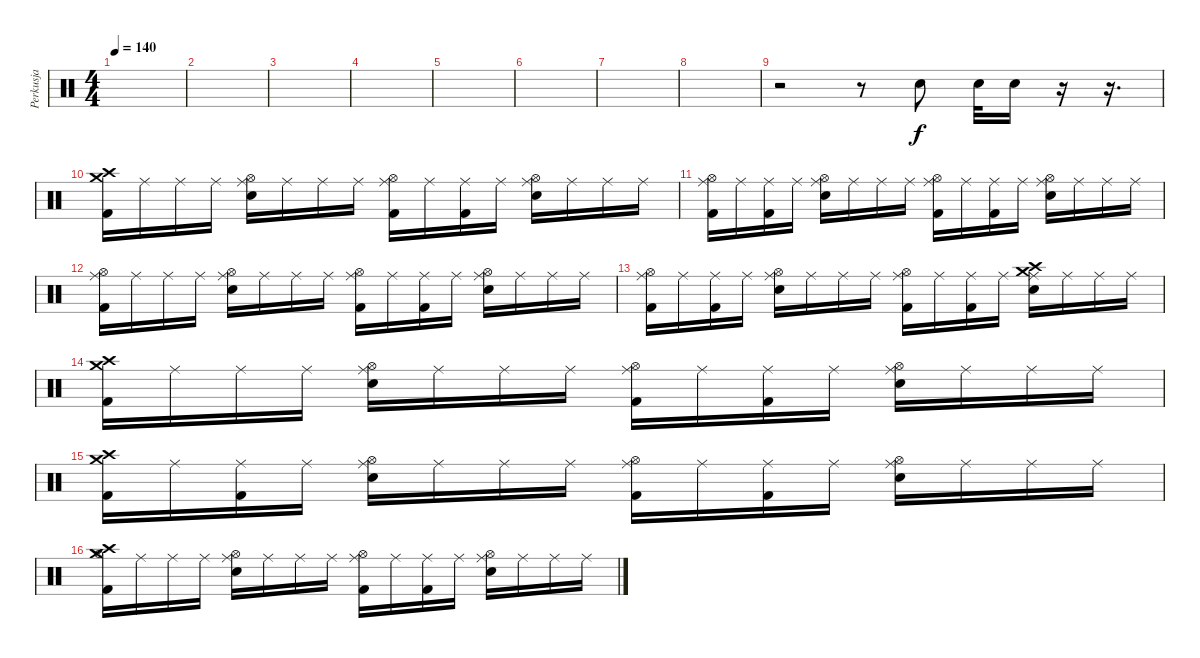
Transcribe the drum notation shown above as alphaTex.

\track ("Perkusja" "Perkusja") {instrument percussion}
\staff {score}
\articulation defaults
\ts (4 4)
\tempo 140
\clef neutral
\ks c
|
|
|
|
|
|
|
|
r.2 r.8 "Snare (hit) 2".8 "Snare (hit) 2".32 "Snare (hit) 2".16 r.16 r.16{d} |
("Crash medium (hit)" "Crash high (hit)" "Kick (hit) 2").16 "Ride (middle)".16 "Ride (middle)".16 "Ride (middle)".16 ("Ride (middle)" "Hi-Hat (open)" "Snare (hit) 2").16 "Ride (middle)".16 "Ride (middle)".16 "Ride (middle)".16 ("Ride (middle)" "Hi-Hat (open)" "Kick (hit) 2").16 "Ride (middle)".16 ("Ride (middle)" "Kick (hit) 2").16 "Ride (middle)".16 ("Ride (middle)" "Hi-Hat (open)" "Snare (hit) 2").16 "Ride (middle)".16 "Ride (middle)".16 "Ride (middle)".16 |
("Ride (middle)" "Hi-Hat (open)" "Kick (hit) 2").16 "Ride (middle)".16 ("Ride (middle)" "Kick (hit) 2").16 "Ride (middle)".16 ("Ride (middle)" "Hi-Hat (open)" "Snare (hit) 2").16 "Ride (middle)".16 "Ride (middle)".16 "Ride (middle)".16 ("Ride (middle)" "Hi-Hat (open)" "Kick (hit) 2").16 "Ride (middle)".16 ("Ride (middle)" "Kick (hit) 2").16 "Ride (middle)".16 ("Ride (middle)" "Hi-Hat (open)" "Snare (hit) 2").16 "Ride (middle)".16 "Ride (middle)".16 "Ride (middle)".16 |
("Ride (middle)" "Hi-Hat (open)" "Kick (hit) 2").16 "Ride (middle)".16 "Ride (middle)".16 "Ride (middle)".16 ("Ride (middle)" "Hi-Hat (open)" "Snare (hit) 2").16 "Ride (middle)".16 "Ride (middle)".16 "Ride (middle)".16 ("Ride (middle)" "Hi-Hat (open)" "Kick (hit) 2").16 "Ride (middle)".16 ("Ride (middle)" "Kick (hit) 2").16 "Ride (middle)".16 ("Ride (middle)" "Hi-Hat (open)" "Snare (hit) 2").16 "Ride (middle)".16 "Ride (middle)".16 "Ride (middle)".16 |
("Ride (middle)" "Hi-Hat (open)" "Kick (hit) 2").16 "Ride (middle)".16 ("Ride (middle)" "Kick (hit) 2").16 "Ride (middle)".16 ("Ride (middle)" "Hi-Hat (open)" "Snare (hit) 2").16 "Ride (middle)".16 "Ride (middle)".16 "Ride (middle)".16 ("Ride (middle)" "Hi-Hat (open)" "Kick (hit) 2").16 "Ride (middle)".16 ("Ride (middle)" "Kick (hit) 2").16 "Ride (middle)".16 ("Crash medium (hit)" "Crash high (hit)" "Ride (middle)" "Snare (hit) 2").16 "Ride (middle)".16 "Ride (middle)".16 "Ride (middle)".16 |
("Crash medium (hit)" "Crash high (hit)" "Kick (hit) 2").16 "Ride (middle)".16 "Ride (middle)".16 "Ride (middle)".16 ("Ride (middle)" "Hi-Hat (open)" "Snare (hit) 2").16 "Ride (middle)".16 "Ride (middle)".16 "Ride (middle)".16 ("Ride (middle)" "Hi-Hat (open)" "Kick (hit) 2").16 "Ride (middle)".16 ("Ride (middle)" "Kick (hit) 2").16 "Ride (middle)".16 ("Ride (middle)" "Hi-Hat (open)" "Snare (hit) 2").16 "Ride (middle)".16 "Ride (middle)".16 "Ride (middle)".16 |
("Crash medium (hit)" "Crash high (hit)" "Kick (hit) 2").16 "Ride (middle)".16 ("Ride (middle)" "Kick (hit) 2").16 "Ride (middle)".16 ("Ride (middle)" "Hi-Hat (open)" "Snare (hit) 2").16 "Ride (middle)".16 "Ride (middle)".16 "Ride (middle)".16 ("Ride (middle)" "Hi-Hat (open)" "Kick (hit) 2").16 "Ride (middle)".16 ("Ride (middle)" "Kick (hit) 2").16 "Ride (middle)".16 ("Ride (middle)" "Hi-Hat (open)" "Snare (hit) 2").16 "Ride (middle)".16 "Ride (middle)".16 "Ride (middle)".16 |
("Crash medium (hit)" "Crash high (hit)" "Hi-Hat (open)" "Kick (hit) 2").16 "Ride (middle)".16 "Ride (middle)".16 "Ride (middle)".16 ("Ride (middle)" "Hi-Hat (open)" "Snare (hit) 2").16 "Ride (middle)".16 "Ride (middle)".16 "Ride (middle)".16 ("Ride (middle)" "Hi-Hat (open)" "Kick (hit) 2").16 "Ride (middle)".16 ("Ride (middle)" "Kick (hit) 2").16 "Ride (middle)".16 ("Ride (middle)" "Hi-Hat (open)" "Snare (hit) 2").16 "Ride (middle)".16 "Ride (middle)".16 "Ride (middle)".16
